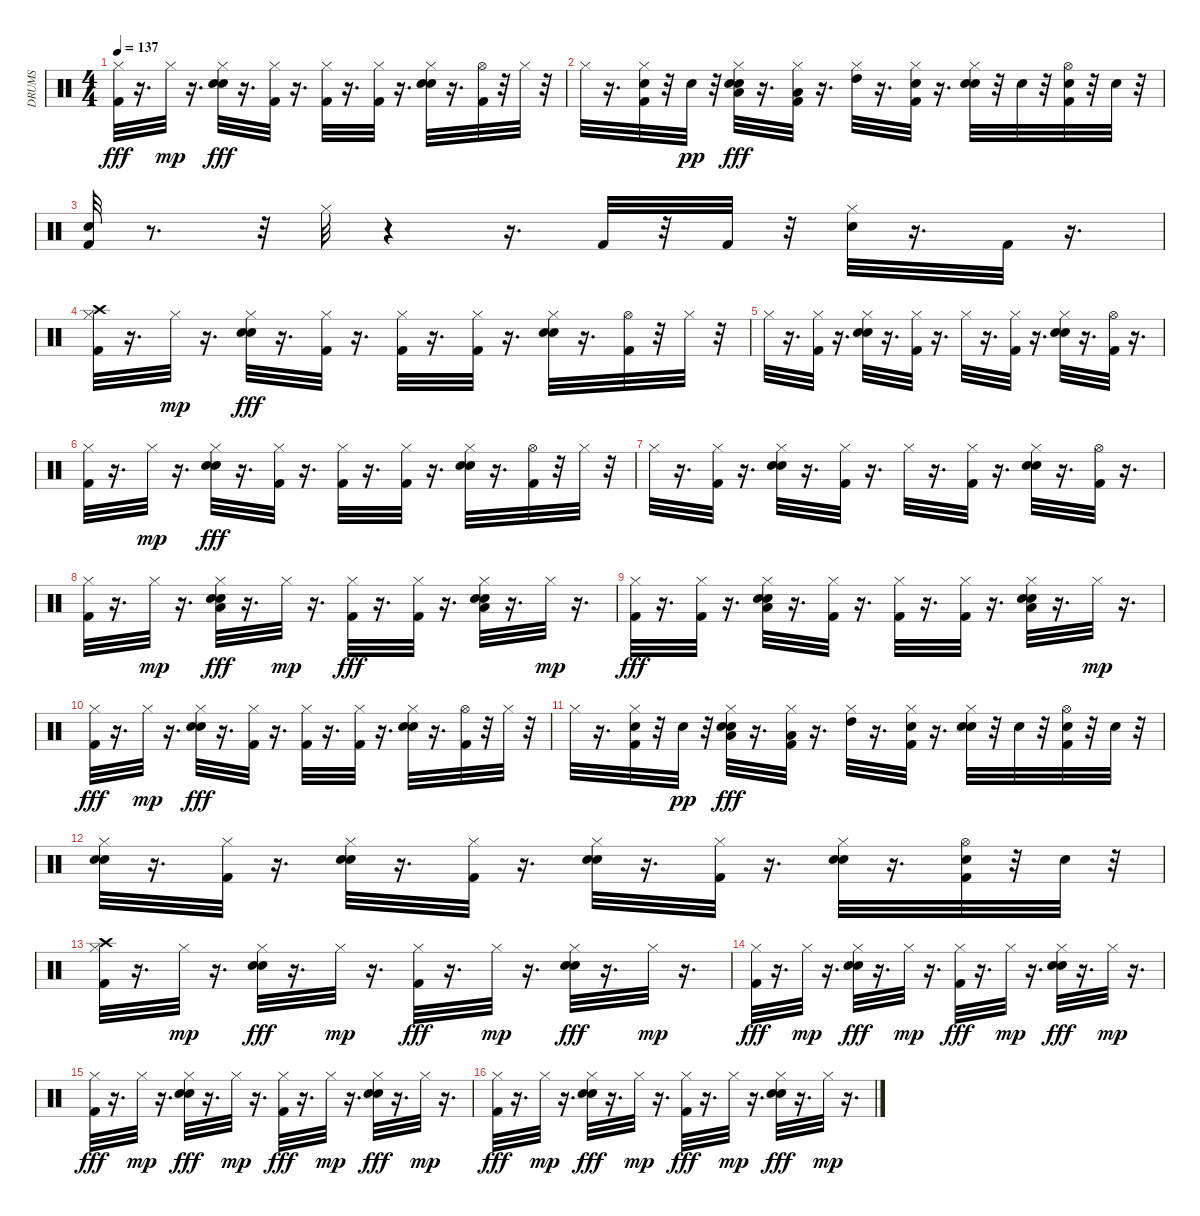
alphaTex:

\track ("DRUMS" "DRUMS") {instrument percussion}
\staff {score}
\articulation defaults
\ts (4 4)
\tempo 137
\clef neutral
\ks c
("Hi-Hat (closed)" "Kick (hit) 2").32{dy fff} r.16{d} "Hi-Hat (closed)".32{dy mp} r.16{d} ("Hand Clap (hit)" "Hi-Hat (closed)" "Snare (hit) 2").32{dy fff} r.16{d} ("Hi-Hat (closed)" "Kick (hit) 2").32 r.16{d} ("Hi-Hat (closed)" "Kick (hit) 2").32 r.16{d} ("Hi-Hat (closed)" "Kick (hit) 2").32 r.16{d} ("Hand Clap (hit)" "Hi-Hat (closed)" "Snare (hit) 2").32 r.16{d} ("Hi-Hat (open)" "Kick (hit) 2").32 r.32 "Hi-Hat (closed)".32 r.32 |
"Hi-Hat (closed)".32 r.16{d} ("Hi-Hat (closed)" "Snare (hit) 2" "Kick (hit) 2").32 r.32 "Snare (hit) 2".32{dy pp} r.32 ("Hand Clap (hit)" "Low Floor Tom (hit)" "Hi-Hat (closed)" "Snare (hit) 2").32{dy fff} r.16{d} ("Low Tom (hit)" "Hi-Hat (closed)" "Kick (hit) 2").32 r.16{d} ("High Tom (hit)" "Hi-Hat (closed)").32 r.16{d} ("Hi-Hat (closed)" "Snare (hit) 2" "Kick (hit) 2").32 r.16{d} ("Hand Clap (hit)" "Hi-Hat (closed)" "Snare (hit) 2").32 r.32 "Snare (hit) 2".32 r.32 ("Hi-Hat (open)" "Snare (hit) 2" "Kick (hit) 2").32 r.32 "Snare (hit) 2".32 r.32 |
("Snare (hit) 2" "Kick (hit) 2").32 r.8{d} r.32 "Hi-Hat (closed)".32 r.4 r.16{d} "Kick (hit) 2".32 r.32 "Kick (hit) 2".32 r.32 ("Hi-Hat (closed)" "Snare (hit) 2").32 r.16{d} "Kick (hit) 2".32 r.16{d} |
("Crash high (hit)" "Hi-Hat (closed)" "Kick (hit) 2").32 r.16{d} "Hi-Hat (closed)".32{dy mp} r.16{d} ("Hand Clap (hit)" "Hi-Hat (closed)" "Snare (hit) 2").32{dy fff} r.16{d} ("Hi-Hat (closed)" "Kick (hit) 2").32 r.16{d} ("Hi-Hat (closed)" "Kick (hit) 2").32 r.16{d} ("Hi-Hat (closed)" "Kick (hit) 2").32 r.16{d} ("Hand Clap (hit)" "Hi-Hat (closed)" "Snare (hit) 2").32 r.16{d} ("Hi-Hat (open)" "Kick (hit) 2").32 r.32 "Hi-Hat (closed)".32 r.32 |
"Hi-Hat (closed)".32 r.16{d} ("Hi-Hat (closed)" "Kick (hit) 2").32 r.16{d} ("Hand Clap (hit)" "Hi-Hat (closed)" "Snare (hit) 2").32 r.16{d} ("Hi-Hat (closed)" "Kick (hit) 2").32 r.16{d} "Hi-Hat (closed)".32 r.16{d} ("Hi-Hat (closed)" "Kick (hit) 2").32 r.16{d} ("Hand Clap (hit)" "Hi-Hat (closed)" "Snare (hit) 2").32 r.16{d} ("Hi-Hat (open)" "Kick (hit) 2").32 r.16{d} |
("Hi-Hat (closed)" "Kick (hit) 2").32 r.16{d} "Hi-Hat (closed)".32{dy mp} r.16{d} ("Hand Clap (hit)" "Hi-Hat (closed)" "Snare (hit) 2").32{dy fff} r.16{d} ("Hi-Hat (closed)" "Kick (hit) 2").32 r.16{d} ("Hi-Hat (closed)" "Kick (hit) 2").32 r.16{d} ("Hi-Hat (closed)" "Kick (hit) 2").32 r.16{d} ("Hand Clap (hit)" "Hi-Hat (closed)" "Snare (hit) 2").32 r.16{d} ("Hi-Hat (open)" "Kick (hit) 2").32 r.32 "Hi-Hat (closed)".32 r.32 |
"Hi-Hat (closed)".32 r.16{d} ("Hi-Hat (closed)" "Kick (hit) 2").32 r.16{d} ("Hand Clap (hit)" "Hi-Hat (closed)" "Snare (hit) 2").32 r.16{d} ("Hi-Hat (closed)" "Kick (hit) 2").32 r.16{d} "Hi-Hat (closed)".32 r.16{d} ("Hi-Hat (closed)" "Kick (hit) 2").32 r.16{d} ("Hand Clap (hit)" "Hi-Hat (closed)" "Snare (hit) 2").32 r.16{d} ("Hi-Hat (open)" "Kick (hit) 2").32 r.16{d} |
("Hi-Hat (closed)" "Kick (hit) 2").32 r.16{d} "Hi-Hat (closed)".32{dy mp} r.16{d} ("Hand Clap (hit)" "Low Floor Tom (hit)" "Hi-Hat (closed)" "Snare (hit) 2").32{dy fff} r.16{d} "Hi-Hat (closed)".32{dy mp} r.16{d} ("Hi-Hat (closed)" "Kick (hit) 2").32{dy fff} r.16{d} ("Hi-Hat (closed)" "Kick (hit) 2").32 r.16{d} ("Hand Clap (hit)" "Low Floor Tom (hit)" "Hi-Hat (closed)" "Snare (hit) 2").32 r.16{d} "Hi-Hat (closed)".32{dy mp} r.16{d} |
("Hi-Hat (closed)" "Kick (hit) 2").32{dy fff} r.16{d} ("Hi-Hat (closed)" "Kick (hit) 2").32 r.16{d} ("Hand Clap (hit)" "Low Floor Tom (hit)" "Hi-Hat (closed)" "Snare (hit) 2").32 r.16{d} ("Hi-Hat (closed)" "Kick (hit) 2").32 r.16{d} ("Hi-Hat (closed)" "Kick (hit) 2").32 r.16{d} ("Hi-Hat (closed)" "Kick (hit) 2").32 r.16{d} ("Hand Clap (hit)" "Low Floor Tom (hit)" "Hi-Hat (closed)" "Snare (hit) 2").32 r.16{d} "Hi-Hat (closed)".32{dy mp} r.16{d} |
("Hi-Hat (closed)" "Kick (hit) 2").32{dy fff} r.16{d} "Hi-Hat (closed)".32{dy mp} r.16{d} ("Hand Clap (hit)" "Hi-Hat (closed)" "Snare (hit) 2").32{dy fff} r.16{d} ("Hi-Hat (closed)" "Kick (hit) 2").32 r.16{d} ("Hi-Hat (closed)" "Kick (hit) 2").32 r.16{d} ("Hi-Hat (closed)" "Kick (hit) 2").32 r.16{d} ("Snare (hit) 2" "Hand Clap (hit)" "Hi-Hat (closed)").32 r.16{d} ("Hi-Hat (open)" "Kick (hit) 2").32 r.32 "Hi-Hat (closed)".32 r.32 |
"Hi-Hat (closed)".32 r.16{d} ("Hi-Hat (closed)" "Snare (hit) 2" "Kick (hit) 2").32 r.32 "Snare (hit) 2".32{dy pp} r.32 ("Hand Clap (hit)" "Low Floor Tom (hit)" "Hi-Hat (closed)" "Snare (hit) 2").32{dy fff} r.16{d} ("Low Tom (hit)" "Hi-Hat (closed)" "Kick (hit) 2").32 r.16{d} ("High Tom (hit)" "Hi-Hat (closed)").32 r.16{d} ("Hi-Hat (closed)" "Snare (hit) 2" "Kick (hit) 2").32 r.16{d} ("Hand Clap (hit)" "Hi-Hat (closed)" "Snare (hit) 2").32 r.32 "Snare (hit) 2".32 r.32 ("Hi-Hat (open)" "Snare (hit) 2" "Kick (hit) 2").32 r.32 "Snare (hit) 2".32 r.32 |
("Hand Clap (hit)" "Hi-Hat (closed)" "Snare (hit) 2").32 r.16{d} ("Hi-Hat (closed)" "Kick (hit) 2").32 r.16{d} ("Hand Clap (hit)" "Hi-Hat (closed)" "Snare (hit) 2").32 r.16{d} ("Hi-Hat (closed)" "Kick (hit) 2").32 r.16{d} ("Hand Clap (hit)" "Hi-Hat (closed)" "Snare (hit) 2").32 r.16{d} ("Hi-Hat (closed)" "Kick (hit) 2").32 r.16{d} ("Hand Clap (hit)" "Hi-Hat (closed)" "Snare (hit) 2").32 r.16{d} ("Hi-Hat (open)" "Snare (hit) 2" "Kick (hit) 2").32 r.32 "Snare (hit) 2".32 r.32 |
("Crash high (hit)" "Hi-Hat (closed)" "Kick (hit) 2").32 r.16{d} "Hi-Hat (closed)".32{dy mp} r.16{d} ("Hand Clap (hit)" "Hi-Hat (closed)" "Snare (hit) 2").32{dy fff} r.16{d} "Hi-Hat (closed)".32{dy mp} r.16{d} ("Hi-Hat (closed)" "Kick (hit) 2").32{dy fff} r.16{d} "Hi-Hat (closed)".32{dy mp} r.16{d} ("Hand Clap (hit)" "Hi-Hat (closed)" "Snare (hit) 2").32{dy fff} r.16{d} "Hi-Hat (closed)".32{dy mp} r.16{d} |
("Kick (hit) 2" "Hi-Hat (closed)").32{dy fff} r.16{d} "Hi-Hat (closed)".32{dy mp} r.16{d} ("Hand Clap (hit)" "Hi-Hat (closed)" "Snare (hit) 2").32{dy fff} r.16{d} "Hi-Hat (closed)".32{dy mp} r.16{d} ("Hi-Hat (closed)" "Kick (hit) 2").32{dy fff} r.16{d} "Hi-Hat (closed)".32{dy mp} r.16{d} ("Hand Clap (hit)" "Hi-Hat (closed)" "Snare (hit) 2").32{dy fff} r.16{d} "Hi-Hat (closed)".32{dy mp} r.16{d} |
("Kick (hit) 2" "Hi-Hat (closed)").32{dy fff} r.16{d} "Hi-Hat (closed)".32{dy mp} r.16{d} ("Hand Clap (hit)" "Hi-Hat (closed)" "Snare (hit) 2").32{dy fff} r.16{d} "Hi-Hat (closed)".32{dy mp} r.16{d} ("Hi-Hat (closed)" "Kick (hit) 2").32{dy fff} r.16{d} "Hi-Hat (closed)".32{dy mp} r.16{d} ("Hand Clap (hit)" "Hi-Hat (closed)" "Snare (hit) 2").32{dy fff} r.16{d} "Hi-Hat (closed)".32{dy mp} r.16{d} |
("Hi-Hat (closed)" "Kick (hit) 2").32{dy fff} r.16{d} "Hi-Hat (closed)".32{dy mp} r.16{d} ("Hand Clap (hit)" "Hi-Hat (closed)" "Snare (hit) 2").32{dy fff} r.16{d} "Hi-Hat (closed)".32{dy mp} r.16{d} ("Kick (hit) 2" "Hi-Hat (closed)").32{dy fff} r.16{d} "Hi-Hat (closed)".32{dy mp} r.16{d} ("Hand Clap (hit)" "Hi-Hat (closed)" "Snare (hit) 2").32{dy fff} r.16{d} "Hi-Hat (closed)".32{dy mp} r.16{d}
